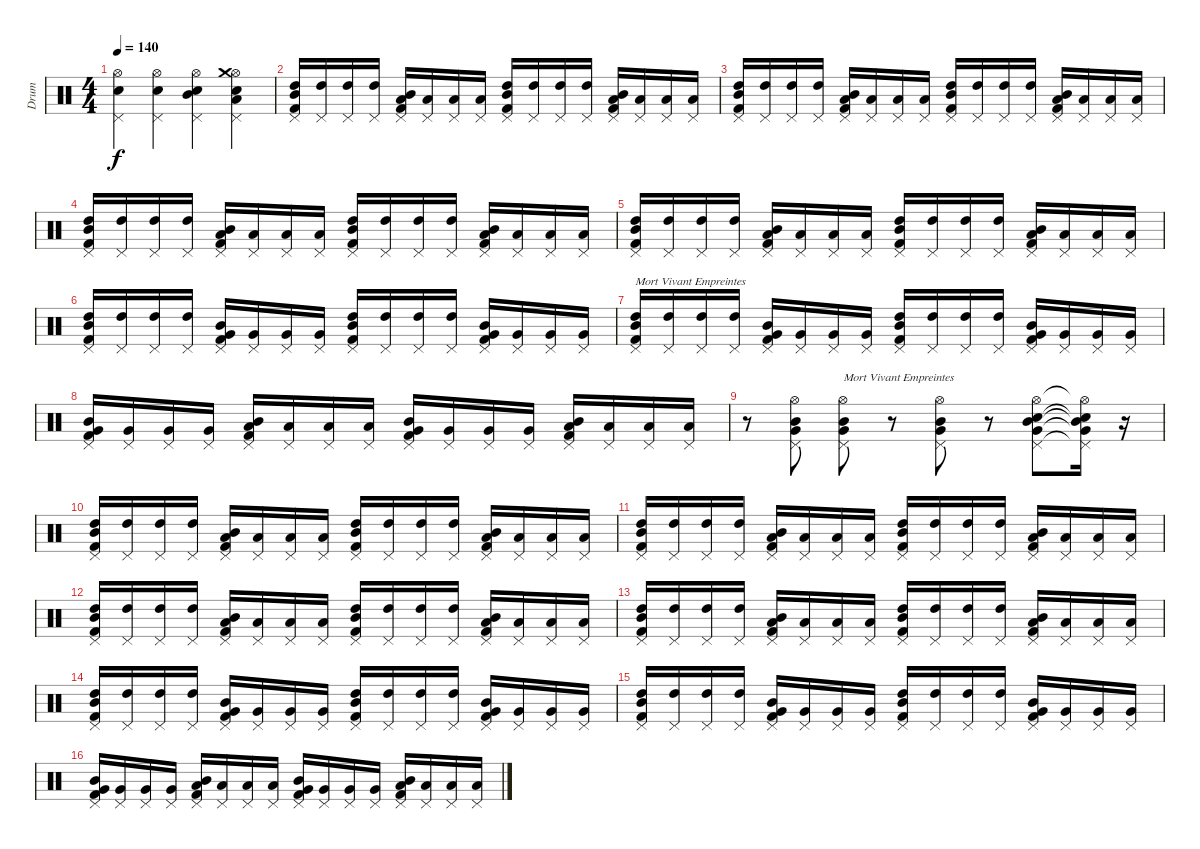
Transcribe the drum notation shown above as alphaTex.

\track ("Drum" "Drum") {instrument percussion}
\staff {score}
\articulation defaults
\ts (4 4)
\tempo 140
\clef neutral
\ks c
("Hi-Hat (open)" "Snare (hit) 2" "Pedal Hi-Hat (hit)").4{dy f} ("Hi-Hat (open)" "Snare (hit) 2" "Pedal Hi-Hat (hit)").4 ("Hi-Hat (open)" "Mid Tom (hit)" "Snare (hit) 2" "Pedal Hi-Hat (hit)").4 ("Hi-Hat (open)" "Low Tom (hit)" "Snare (hit) 2" "Crash medium (hit)" "Pedal Hi-Hat (hit)").4 |
("High Tom (hit)" "Mid Tom (hit)" "Kick (hit) 2" "Pedal Hi-Hat (hit)").16 ("High Tom (hit)" "Pedal Hi-Hat (hit)").16 ("High Tom (hit)" "Pedal Hi-Hat (hit)").16 ("High Tom (hit)" "Pedal Hi-Hat (hit)").16 ("Low Tom (hit)" "Mid Tom (hit)" "Kick (hit) 2" "Pedal Hi-Hat (hit)").16 ("Low Tom (hit)" "Pedal Hi-Hat (hit)").16 ("Low Tom (hit)" "Pedal Hi-Hat (hit)").16 ("Low Tom (hit)" "Pedal Hi-Hat (hit)").16 ("High Tom (hit)" "Mid Tom (hit)" "Kick (hit) 2" "Pedal Hi-Hat (hit)").16 ("High Tom (hit)" "Pedal Hi-Hat (hit)").16 ("High Tom (hit)" "Pedal Hi-Hat (hit)").16 ("High Tom (hit)" "Pedal Hi-Hat (hit)").16 ("Low Tom (hit)" "Mid Tom (hit)" "Kick (hit) 2" "Pedal Hi-Hat (hit)").16 ("Low Tom (hit)" "Pedal Hi-Hat (hit)").16 ("Low Tom (hit)" "Pedal Hi-Hat (hit)").16 ("Low Tom (hit)" "Pedal Hi-Hat (hit)").16 |
("High Tom (hit)" "Mid Tom (hit)" "Kick (hit) 2" "Pedal Hi-Hat (hit)").16 ("High Tom (hit)" "Pedal Hi-Hat (hit)").16 ("High Tom (hit)" "Pedal Hi-Hat (hit)").16 ("High Tom (hit)" "Pedal Hi-Hat (hit)").16 ("Low Tom (hit)" "Mid Tom (hit)" "Kick (hit) 2" "Pedal Hi-Hat (hit)").16 ("Low Tom (hit)" "Pedal Hi-Hat (hit)").16 ("Low Tom (hit)" "Pedal Hi-Hat (hit)").16 ("Low Tom (hit)" "Pedal Hi-Hat (hit)").16 ("High Tom (hit)" "Mid Tom (hit)" "Kick (hit) 2" "Pedal Hi-Hat (hit)").16 ("High Tom (hit)" "Pedal Hi-Hat (hit)").16 ("High Tom (hit)" "Pedal Hi-Hat (hit)").16 ("High Tom (hit)" "Pedal Hi-Hat (hit)").16 ("Low Tom (hit)" "Mid Tom (hit)" "Kick (hit) 2" "Pedal Hi-Hat (hit)").16 ("Low Tom (hit)" "Pedal Hi-Hat (hit)").16 ("Low Tom (hit)" "Pedal Hi-Hat (hit)").16 ("Low Tom (hit)" "Pedal Hi-Hat (hit)").16 |
("High Tom (hit)" "Mid Tom (hit)" "Kick (hit) 2" "Pedal Hi-Hat (hit)").16 ("High Tom (hit)" "Pedal Hi-Hat (hit)").16 ("High Tom (hit)" "Pedal Hi-Hat (hit)").16 ("High Tom (hit)" "Pedal Hi-Hat (hit)").16 ("Low Tom (hit)" "Mid Tom (hit)" "Kick (hit) 2" "Pedal Hi-Hat (hit)").16 ("Low Tom (hit)" "Pedal Hi-Hat (hit)").16 ("Low Tom (hit)" "Pedal Hi-Hat (hit)").16 ("Low Tom (hit)" "Pedal Hi-Hat (hit)").16 ("High Tom (hit)" "Mid Tom (hit)" "Kick (hit) 2" "Pedal Hi-Hat (hit)").16 ("High Tom (hit)" "Pedal Hi-Hat (hit)").16 ("High Tom (hit)" "Pedal Hi-Hat (hit)").16 ("High Tom (hit)" "Pedal Hi-Hat (hit)").16 ("Low Tom (hit)" "Mid Tom (hit)" "Kick (hit) 2" "Pedal Hi-Hat (hit)").16 ("Low Tom (hit)" "Pedal Hi-Hat (hit)").16 ("Low Tom (hit)" "Pedal Hi-Hat (hit)").16 ("Low Tom (hit)" "Pedal Hi-Hat (hit)").16 |
("High Tom (hit)" "Mid Tom (hit)" "Kick (hit) 2" "Pedal Hi-Hat (hit)").16 ("High Tom (hit)" "Pedal Hi-Hat (hit)").16 ("High Tom (hit)" "Pedal Hi-Hat (hit)").16 ("High Tom (hit)" "Pedal Hi-Hat (hit)").16 ("Low Tom (hit)" "Mid Tom (hit)" "Kick (hit) 2" "Pedal Hi-Hat (hit)").16 ("Low Tom (hit)" "Pedal Hi-Hat (hit)").16 ("Low Tom (hit)" "Pedal Hi-Hat (hit)").16 ("Low Tom (hit)" "Pedal Hi-Hat (hit)").16 ("High Tom (hit)" "Mid Tom (hit)" "Kick (hit) 2" "Pedal Hi-Hat (hit)").16 ("High Tom (hit)" "Pedal Hi-Hat (hit)").16 ("High Tom (hit)" "Pedal Hi-Hat (hit)").16 ("High Tom (hit)" "Pedal Hi-Hat (hit)").16 ("Low Tom (hit)" "Mid Tom (hit)" "Kick (hit) 2" "Pedal Hi-Hat (hit)").16 ("Low Tom (hit)" "Pedal Hi-Hat (hit)").16 ("Low Tom (hit)" "Pedal Hi-Hat (hit)").16 ("Low Tom (hit)" "Pedal Hi-Hat (hit)").16 |
("High Tom (hit)" "Mid Tom (hit)" "Kick (hit) 2" "Pedal Hi-Hat (hit)").16 ("High Tom (hit)" "Pedal Hi-Hat (hit)").16 ("High Tom (hit)" "Pedal Hi-Hat (hit)").16 ("High Tom (hit)" "Pedal Hi-Hat (hit)").16 ("Very Low Tom (hit)" "Mid Tom (hit)" "Kick (hit) 2" "Pedal Hi-Hat (hit)").16 ("Very Low Tom (hit)" "Pedal Hi-Hat (hit)").16 ("Very Low Tom (hit)" "Pedal Hi-Hat (hit)").16 ("Very Low Tom (hit)" "Pedal Hi-Hat (hit)").16 ("High Tom (hit)" "Mid Tom (hit)" "Kick (hit) 2" "Pedal Hi-Hat (hit)").16 ("High Tom (hit)" "Pedal Hi-Hat (hit)").16 ("High Tom (hit)" "Pedal Hi-Hat (hit)").16 ("High Tom (hit)" "Pedal Hi-Hat (hit)").16 ("Very Low Tom (hit)" "Mid Tom (hit)" "Kick (hit) 2" "Pedal Hi-Hat (hit)").16 ("Very Low Tom (hit)" "Pedal Hi-Hat (hit)").16 ("Very Low Tom (hit)" "Pedal Hi-Hat (hit)").16 ("Very Low Tom (hit)" "Pedal Hi-Hat (hit)").16 |
("High Tom (hit)" "Mid Tom (hit)" "Kick (hit) 2" "Pedal Hi-Hat (hit)").16{txt "Mort Vivant Empreintes"} ("High Tom (hit)" "Pedal Hi-Hat (hit)").16 ("High Tom (hit)" "Pedal Hi-Hat (hit)").16 ("High Tom (hit)" "Pedal Hi-Hat (hit)").16 ("Very Low Tom (hit)" "Mid Tom (hit)" "Kick (hit) 2" "Pedal Hi-Hat (hit)").16 ("Very Low Tom (hit)" "Pedal Hi-Hat (hit)").16 ("Very Low Tom (hit)" "Pedal Hi-Hat (hit)").16 ("Very Low Tom (hit)" "Pedal Hi-Hat (hit)").16 ("High Tom (hit)" "Mid Tom (hit)" "Kick (hit) 2" "Pedal Hi-Hat (hit)").16 ("High Tom (hit)" "Pedal Hi-Hat (hit)").16 ("High Tom (hit)" "Pedal Hi-Hat (hit)").16 ("High Tom (hit)" "Pedal Hi-Hat (hit)").16 ("Very Low Tom (hit)" "Mid Tom (hit)" "Kick (hit) 2" "Pedal Hi-Hat (hit)").16 ("Very Low Tom (hit)" "Pedal Hi-Hat (hit)").16 ("Very Low Tom (hit)" "Pedal Hi-Hat (hit)").16 ("Very Low Tom (hit)" "Pedal Hi-Hat (hit)").16 |
("Very Low Tom (hit)" "Mid Tom (hit)" "Kick (hit) 2" "Pedal Hi-Hat (hit)").16 ("Very Low Tom (hit)" "Pedal Hi-Hat (hit)").16 ("Very Low Tom (hit)" "Pedal Hi-Hat (hit)").16 ("Very Low Tom (hit)" "Pedal Hi-Hat (hit)").16 ("Low Tom (hit)" "Mid Tom (hit)" "Kick (hit) 2" "Pedal Hi-Hat (hit)").16 ("Low Tom (hit)" "Pedal Hi-Hat (hit)").16 ("Low Tom (hit)" "Pedal Hi-Hat (hit)").16 ("Low Tom (hit)" "Pedal Hi-Hat (hit)").16 ("Very Low Tom (hit)" "Mid Tom (hit)" "Kick (hit) 2" "Pedal Hi-Hat (hit)").16 ("Very Low Tom (hit)" "Pedal Hi-Hat (hit)").16 ("Very Low Tom (hit)" "Pedal Hi-Hat (hit)").16 ("Very Low Tom (hit)" "Pedal Hi-Hat (hit)").16 ("Low Tom (hit)" "Mid Tom (hit)" "Kick (hit) 2" "Pedal Hi-Hat (hit)").16 ("Low Tom (hit)" "Pedal Hi-Hat (hit)").16 ("Low Tom (hit)" "Pedal Hi-Hat (hit)").16 ("Low Tom (hit)" "Pedal Hi-Hat (hit)").16 |
r.8 ("Hi-Hat (open)" "Very Low Tom (hit)" "Mid Tom (hit)" "Pedal Hi-Hat (hit)").8 ("Hi-Hat (open)" "Very Low Tom (hit)" "Mid Tom (hit)" "Pedal Hi-Hat (hit)").8{txt "Mort Vivant Empreintes"} r.8 ("Hi-Hat (open)" "Very Low Tom (hit)" "Mid Tom (hit)" "Pedal Hi-Hat (hit)").8 r.8 ("Hi-Hat (open)" "Very Low Tom (hit)" "Mid Tom (hit)" "Snare (hit) 2" "Pedal Hi-Hat (hit)").8 ("Hi-Hat (open)"{t} "Very Low Tom (hit)"{t} "Mid Tom (hit)"{t} "Snare (hit) 2"{t} "Pedal Hi-Hat (hit)"{t}).16 r.16 |
("High Tom (hit)" "Mid Tom (hit)" "Kick (hit) 2" "Pedal Hi-Hat (hit)").16 ("High Tom (hit)" "Pedal Hi-Hat (hit)").16 ("High Tom (hit)" "Pedal Hi-Hat (hit)").16 ("High Tom (hit)" "Pedal Hi-Hat (hit)").16 ("Low Tom (hit)" "Mid Tom (hit)" "Kick (hit) 2" "Pedal Hi-Hat (hit)").16 ("Low Tom (hit)" "Pedal Hi-Hat (hit)").16 ("Low Tom (hit)" "Pedal Hi-Hat (hit)").16 ("Low Tom (hit)" "Pedal Hi-Hat (hit)").16 ("High Tom (hit)" "Mid Tom (hit)" "Kick (hit) 2" "Pedal Hi-Hat (hit)").16 ("High Tom (hit)" "Pedal Hi-Hat (hit)").16 ("High Tom (hit)" "Pedal Hi-Hat (hit)").16 ("High Tom (hit)" "Pedal Hi-Hat (hit)").16 ("Low Tom (hit)" "Mid Tom (hit)" "Kick (hit) 2" "Pedal Hi-Hat (hit)").16 ("Low Tom (hit)" "Pedal Hi-Hat (hit)").16 ("Low Tom (hit)" "Pedal Hi-Hat (hit)").16 ("Low Tom (hit)" "Pedal Hi-Hat (hit)").16 |
("High Tom (hit)" "Mid Tom (hit)" "Kick (hit) 2" "Pedal Hi-Hat (hit)").16 ("High Tom (hit)" "Pedal Hi-Hat (hit)").16 ("High Tom (hit)" "Pedal Hi-Hat (hit)").16 ("High Tom (hit)" "Pedal Hi-Hat (hit)").16 ("Low Tom (hit)" "Mid Tom (hit)" "Kick (hit) 2" "Pedal Hi-Hat (hit)").16 ("Low Tom (hit)" "Pedal Hi-Hat (hit)").16 ("Low Tom (hit)" "Pedal Hi-Hat (hit)").16 ("Low Tom (hit)" "Pedal Hi-Hat (hit)").16 ("High Tom (hit)" "Mid Tom (hit)" "Kick (hit) 2" "Pedal Hi-Hat (hit)").16 ("High Tom (hit)" "Pedal Hi-Hat (hit)").16 ("High Tom (hit)" "Pedal Hi-Hat (hit)").16 ("High Tom (hit)" "Pedal Hi-Hat (hit)").16 ("Low Tom (hit)" "Mid Tom (hit)" "Kick (hit) 2" "Pedal Hi-Hat (hit)").16 ("Low Tom (hit)" "Pedal Hi-Hat (hit)").16 ("Low Tom (hit)" "Pedal Hi-Hat (hit)").16 ("Low Tom (hit)" "Pedal Hi-Hat (hit)").16 |
("High Tom (hit)" "Mid Tom (hit)" "Kick (hit) 2" "Pedal Hi-Hat (hit)").16 ("High Tom (hit)" "Pedal Hi-Hat (hit)").16 ("High Tom (hit)" "Pedal Hi-Hat (hit)").16 ("High Tom (hit)" "Pedal Hi-Hat (hit)").16 ("Low Tom (hit)" "Mid Tom (hit)" "Kick (hit) 2" "Pedal Hi-Hat (hit)").16 ("Low Tom (hit)" "Pedal Hi-Hat (hit)").16 ("Low Tom (hit)" "Pedal Hi-Hat (hit)").16 ("Low Tom (hit)" "Pedal Hi-Hat (hit)").16 ("High Tom (hit)" "Mid Tom (hit)" "Kick (hit) 2" "Pedal Hi-Hat (hit)").16 ("High Tom (hit)" "Pedal Hi-Hat (hit)").16 ("High Tom (hit)" "Pedal Hi-Hat (hit)").16 ("High Tom (hit)" "Pedal Hi-Hat (hit)").16 ("Low Tom (hit)" "Mid Tom (hit)" "Kick (hit) 2" "Pedal Hi-Hat (hit)").16 ("Low Tom (hit)" "Pedal Hi-Hat (hit)").16 ("Low Tom (hit)" "Pedal Hi-Hat (hit)").16 ("Low Tom (hit)" "Pedal Hi-Hat (hit)").16 |
("High Tom (hit)" "Mid Tom (hit)" "Kick (hit) 2" "Pedal Hi-Hat (hit)").16 ("High Tom (hit)" "Pedal Hi-Hat (hit)").16 ("High Tom (hit)" "Pedal Hi-Hat (hit)").16 ("High Tom (hit)" "Pedal Hi-Hat (hit)").16 ("Low Tom (hit)" "Mid Tom (hit)" "Kick (hit) 2" "Pedal Hi-Hat (hit)").16 ("Low Tom (hit)" "Pedal Hi-Hat (hit)").16 ("Low Tom (hit)" "Pedal Hi-Hat (hit)").16 ("Low Tom (hit)" "Pedal Hi-Hat (hit)").16 ("High Tom (hit)" "Mid Tom (hit)" "Kick (hit) 2" "Pedal Hi-Hat (hit)").16 ("High Tom (hit)" "Pedal Hi-Hat (hit)").16 ("High Tom (hit)" "Pedal Hi-Hat (hit)").16 ("High Tom (hit)" "Pedal Hi-Hat (hit)").16 ("Low Tom (hit)" "Mid Tom (hit)" "Kick (hit) 2" "Pedal Hi-Hat (hit)").16 ("Low Tom (hit)" "Pedal Hi-Hat (hit)").16 ("Low Tom (hit)" "Pedal Hi-Hat (hit)").16 ("Low Tom (hit)" "Pedal Hi-Hat (hit)").16 |
("High Tom (hit)" "Mid Tom (hit)" "Kick (hit) 2" "Pedal Hi-Hat (hit)").16 ("High Tom (hit)" "Pedal Hi-Hat (hit)").16 ("High Tom (hit)" "Pedal Hi-Hat (hit)").16 ("High Tom (hit)" "Pedal Hi-Hat (hit)").16 ("Very Low Tom (hit)" "Mid Tom (hit)" "Kick (hit) 2" "Pedal Hi-Hat (hit)").16 ("Very Low Tom (hit)" "Pedal Hi-Hat (hit)").16 ("Very Low Tom (hit)" "Pedal Hi-Hat (hit)").16 ("Very Low Tom (hit)" "Pedal Hi-Hat (hit)").16 ("High Tom (hit)" "Mid Tom (hit)" "Kick (hit) 2" "Pedal Hi-Hat (hit)").16 ("High Tom (hit)" "Pedal Hi-Hat (hit)").16 ("High Tom (hit)" "Pedal Hi-Hat (hit)").16 ("High Tom (hit)" "Pedal Hi-Hat (hit)").16 ("Very Low Tom (hit)" "Mid Tom (hit)" "Kick (hit) 2" "Pedal Hi-Hat (hit)").16 ("Very Low Tom (hit)" "Pedal Hi-Hat (hit)").16 ("Very Low Tom (hit)" "Pedal Hi-Hat (hit)").16 ("Very Low Tom (hit)" "Pedal Hi-Hat (hit)").16 |
("High Tom (hit)" "Mid Tom (hit)" "Kick (hit) 2" "Pedal Hi-Hat (hit)").16 ("High Tom (hit)" "Pedal Hi-Hat (hit)").16 ("High Tom (hit)" "Pedal Hi-Hat (hit)").16 ("High Tom (hit)" "Pedal Hi-Hat (hit)").16 ("Very Low Tom (hit)" "Mid Tom (hit)" "Kick (hit) 2" "Pedal Hi-Hat (hit)").16 ("Very Low Tom (hit)" "Pedal Hi-Hat (hit)").16 ("Very Low Tom (hit)" "Pedal Hi-Hat (hit)").16 ("Very Low Tom (hit)" "Pedal Hi-Hat (hit)").16 ("High Tom (hit)" "Mid Tom (hit)" "Kick (hit) 2" "Pedal Hi-Hat (hit)").16 ("High Tom (hit)" "Pedal Hi-Hat (hit)").16 ("High Tom (hit)" "Pedal Hi-Hat (hit)").16 ("High Tom (hit)" "Pedal Hi-Hat (hit)").16 ("Very Low Tom (hit)" "Mid Tom (hit)" "Kick (hit) 2" "Pedal Hi-Hat (hit)").16 ("Very Low Tom (hit)" "Pedal Hi-Hat (hit)").16 ("Very Low Tom (hit)" "Pedal Hi-Hat (hit)").16 ("Very Low Tom (hit)" "Pedal Hi-Hat (hit)").16 |
("Very Low Tom (hit)" "Mid Tom (hit)" "Kick (hit) 2" "Pedal Hi-Hat (hit)").16 ("Very Low Tom (hit)" "Pedal Hi-Hat (hit)").16 ("Very Low Tom (hit)" "Pedal Hi-Hat (hit)").16 ("Very Low Tom (hit)" "Pedal Hi-Hat (hit)").16 ("Low Tom (hit)" "Mid Tom (hit)" "Kick (hit) 2" "Pedal Hi-Hat (hit)").16 ("Low Tom (hit)" "Pedal Hi-Hat (hit)").16 ("Low Tom (hit)" "Pedal Hi-Hat (hit)").16 ("Low Tom (hit)" "Pedal Hi-Hat (hit)").16 ("Very Low Tom (hit)" "Mid Tom (hit)" "Kick (hit) 2" "Pedal Hi-Hat (hit)").16 ("Very Low Tom (hit)" "Pedal Hi-Hat (hit)").16 ("Very Low Tom (hit)" "Pedal Hi-Hat (hit)").16 ("Very Low Tom (hit)" "Pedal Hi-Hat (hit)").16 ("Low Tom (hit)" "Mid Tom (hit)" "Kick (hit) 2" "Pedal Hi-Hat (hit)").16 ("Low Tom (hit)" "Pedal Hi-Hat (hit)").16 ("Low Tom (hit)" "Pedal Hi-Hat (hit)").16 ("Low Tom (hit)" "Pedal Hi-Hat (hit)").16
